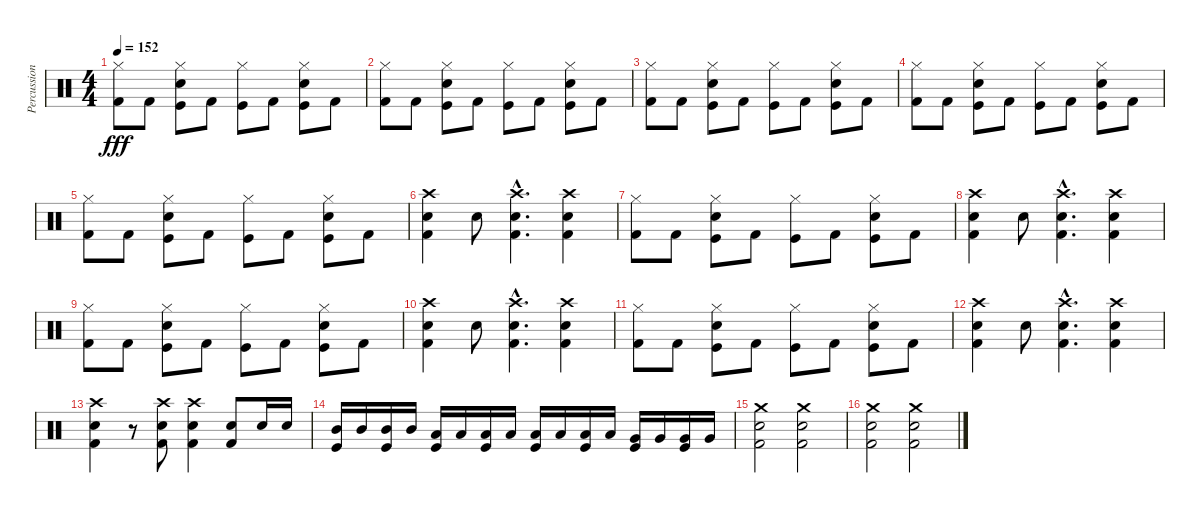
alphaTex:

\track ("Percussions" "Percussion") {instrument percussion}
\staff {score}
\articulation defaults
\ts (4 4)
\tempo 152
\clef neutral
\ks c
("Hi-Hat (closed)" "Kick (hit) 2").8{dy fff} "Kick (hit) 2".8 ("Hi-Hat (closed)" "Snare (hit) 2" "Kick (hit)").8 "Kick (hit) 2".8 ("Hi-Hat (closed)" "Kick (hit)").8 "Kick (hit) 2".8 ("Hi-Hat (closed)" "Snare (hit) 2" "Kick (hit)").8 "Kick (hit) 2".8 |
("Hi-Hat (closed)" "Kick (hit) 2").8 "Kick (hit) 2".8 ("Hi-Hat (closed)" "Snare (hit) 2" "Kick (hit)").8 "Kick (hit) 2".8 ("Hi-Hat (closed)" "Kick (hit)").8 "Kick (hit) 2".8 ("Hi-Hat (closed)" "Snare (hit) 2" "Kick (hit)").8 "Kick (hit) 2".8 |
("Hi-Hat (closed)" "Kick (hit) 2").8 "Kick (hit) 2".8 ("Hi-Hat (closed)" "Snare (hit) 2" "Kick (hit)").8 "Kick (hit) 2".8 ("Hi-Hat (closed)" "Kick (hit)").8 "Kick (hit) 2".8 ("Hi-Hat (closed)" "Snare (hit) 2" "Kick (hit)").8 "Kick (hit) 2".8 |
("Hi-Hat (closed)" "Kick (hit) 2").8 "Kick (hit) 2".8 ("Hi-Hat (closed)" "Snare (hit) 2" "Kick (hit)").8 "Kick (hit) 2".8 ("Hi-Hat (closed)" "Kick (hit)").8 "Kick (hit) 2".8 ("Hi-Hat (closed)" "Snare (hit) 2" "Kick (hit)").8 "Kick (hit) 2".8 |
("Hi-Hat (closed)" "Kick (hit) 2").8 "Kick (hit) 2".8 ("Hi-Hat (closed)" "Snare (hit) 2" "Kick (hit)").8 "Kick (hit) 2".8 ("Hi-Hat (closed)" "Kick (hit)").8 "Kick (hit) 2".8 ("Hi-Hat (closed)" "Snare (hit) 2" "Kick (hit)").8 "Kick (hit) 2".8 |
("Crash high (hit)" "Snare (hit) 2" "Kick (hit) 2").4 "Snare (hit) 2".8 ("Crash high (hit)"{hac} "Snare (hit) 2"{hac} "Kick (hit) 2"{hac}).4{d} ("Crash high (hit)" "Snare (hit) 2" "Kick (hit) 2").4 |
("Hi-Hat (closed)" "Kick (hit) 2").8 "Kick (hit) 2".8 ("Hi-Hat (closed)" "Snare (hit) 2" "Kick (hit)").8 "Kick (hit) 2".8 ("Hi-Hat (closed)" "Kick (hit)").8 "Kick (hit) 2".8 ("Hi-Hat (closed)" "Snare (hit) 2" "Kick (hit)").8 "Kick (hit) 2".8 |
("Crash high (hit)" "Snare (hit) 2" "Kick (hit) 2").4 "Snare (hit) 2".8 ("Crash high (hit)"{hac} "Snare (hit) 2"{hac} "Kick (hit) 2"{hac}).4{d} ("Crash high (hit)" "Snare (hit) 2" "Kick (hit) 2").4 |
("Hi-Hat (closed)" "Kick (hit) 2").8 "Kick (hit) 2".8 ("Hi-Hat (closed)" "Snare (hit) 2" "Kick (hit)").8 "Kick (hit) 2".8 ("Hi-Hat (closed)" "Kick (hit)").8 "Kick (hit) 2".8 ("Hi-Hat (closed)" "Snare (hit) 2" "Kick (hit)").8 "Kick (hit) 2".8 |
("Crash high (hit)" "Snare (hit) 2" "Kick (hit) 2").4 "Snare (hit) 2".8 ("Crash high (hit)"{hac} "Snare (hit) 2"{hac} "Kick (hit) 2"{hac}).4{d} ("Crash high (hit)" "Snare (hit) 2" "Kick (hit) 2").4 |
("Hi-Hat (closed)" "Kick (hit) 2").8 "Kick (hit) 2".8 ("Hi-Hat (closed)" "Snare (hit) 2" "Kick (hit)").8 "Kick (hit) 2".8 ("Hi-Hat (closed)" "Kick (hit)").8 "Kick (hit) 2".8 ("Hi-Hat (closed)" "Snare (hit) 2" "Kick (hit)").8 "Kick (hit) 2".8 |
("Crash high (hit)" "Snare (hit) 2" "Kick (hit) 2").4 "Snare (hit) 2".8 ("Crash high (hit)"{hac} "Snare (hit) 2"{hac} "Kick (hit) 2"{hac}).4{d} ("Crash high (hit)" "Snare (hit) 2" "Kick (hit) 2").4 |
("Crash high (hit)" "Snare (hit) 2" "Kick (hit) 2").4 r.8 ("Crash high (hit)" "Snare (hit) 2" "Kick (hit) 2").8 ("Crash high (hit)" "Snare (hit) 2" "Kick (hit) 2").4 ("Snare (hit) 2" "Kick (hit) 2").8 "Snare (hit) 2".16 "Snare (hit) 2".16 |
("Mid Tom (hit)" "Kick (hit)").16 "Mid Tom (hit)".16 ("Mid Tom (hit)" "Kick (hit)").16 "Mid Tom (hit)".16 ("Low Tom (hit)" "Kick (hit)").16 "Low Tom (hit)".16 ("Low Tom (hit)" "Kick (hit)").16 "Low Tom (hit)".16 ("Low Floor Tom (hit)" "Kick (hit)").16 "Low Floor Tom (hit)".16 ("Low Floor Tom (hit)" "Kick (hit)").16 "Low Floor Tom (hit)".16 ("Very Low Tom (hit)" "Kick (hit)").16 "Very Low Tom (hit)".16 ("Very Low Tom (hit)" "Kick (hit)").16 "Very Low Tom (hit)".16 |
("Crash medium (hit)" "Snare (hit) 2" "Kick (hit) 2").2 ("Crash medium (hit)" "Snare (hit) 2" "Kick (hit) 2").2 |
("Crash medium (hit)" "Snare (hit) 2" "Kick (hit) 2").2 ("Crash medium (hit)" "Snare (hit) 2" "Kick (hit) 2").2
